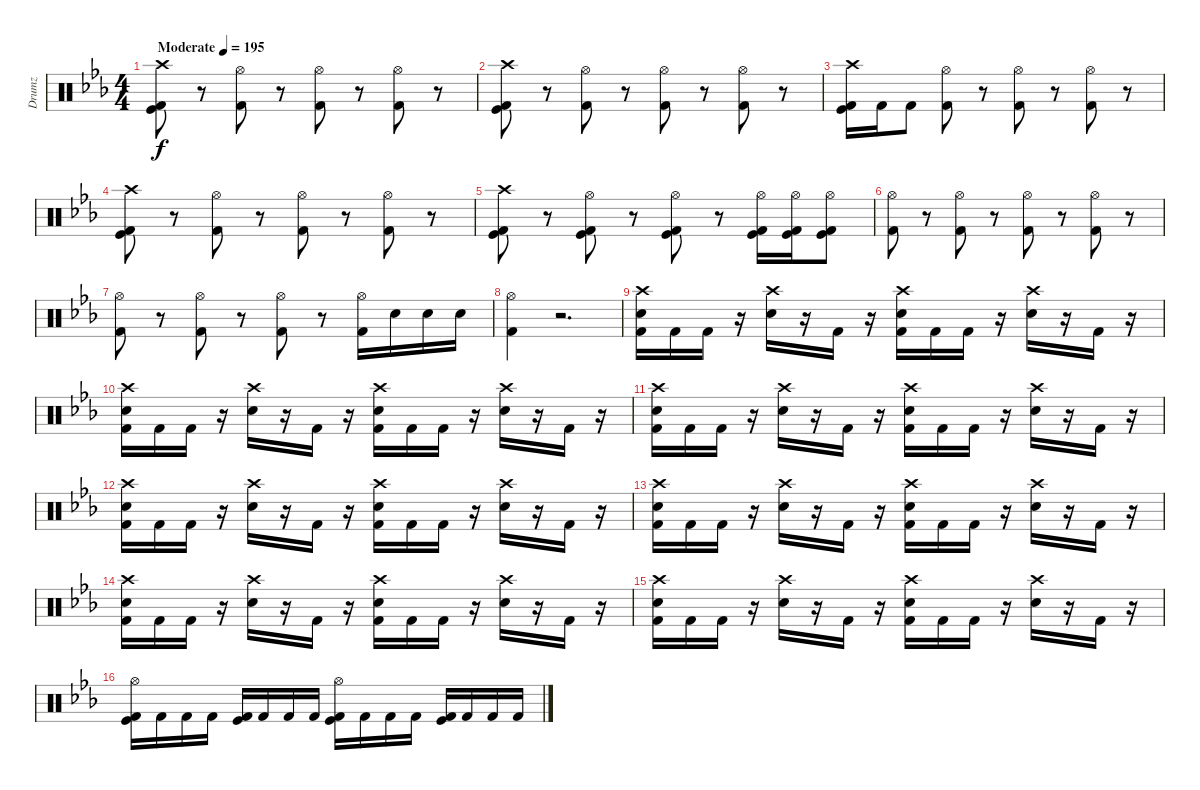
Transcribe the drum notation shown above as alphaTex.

\track ("Drumz" "Drumz") {instrument percussion}
\staff {score}
\articulation defaults
\ts (4 4)
\tempo (195 "Moderate")
\clef neutral
\ks cminor
("Crash high (hit)" "Kick (hit)" "Kick (hit) 2").8{dy f} r.8 ("Hi-Hat (open)" "Kick (hit) 2").8 r.8 ("Hi-Hat (open)" "Kick (hit) 2").8 r.8 ("Hi-Hat (open)" "Kick (hit) 2").8 r.8 |
("Crash high (hit)" "Kick (hit)" "Kick (hit) 2").8 r.8 ("Hi-Hat (open)" "Kick (hit) 2").8 r.8 ("Hi-Hat (open)" "Kick (hit) 2").8 r.8 ("Hi-Hat (open)" "Kick (hit) 2").8 r.8 |
("Crash high (hit)" "Kick (hit)" "Kick (hit) 2").16 "Kick (hit) 2".16 "Kick (hit) 2".8 ("Hi-Hat (open)" "Kick (hit) 2").8 r.8 ("Hi-Hat (open)" "Kick (hit) 2").8 r.8 ("Hi-Hat (open)" "Kick (hit) 2").8 r.8 |
("Crash high (hit)" "Kick (hit)" "Kick (hit) 2").8 r.8 ("Hi-Hat (open)" "Kick (hit) 2").8 r.8 ("Hi-Hat (open)" "Kick (hit) 2").8 r.8 ("Hi-Hat (open)" "Kick (hit) 2").8 r.8 |
("Crash high (hit)" "Kick (hit)" "Kick (hit) 2").8 r.8 ("Hi-Hat (open)" "Kick (hit)" "Kick (hit) 2").8 r.8 ("Hi-Hat (open)" "Kick (hit)" "Kick (hit) 2").8 r.8 ("Hi-Hat (open)" "Kick (hit)" "Kick (hit) 2").16 ("Hi-Hat (open)" "Kick (hit)" "Kick (hit) 2").16 ("Hi-Hat (open)" "Kick (hit)" "Kick (hit) 2").8 |
("Hi-Hat (open)" "Kick (hit) 2").8 r.8 ("Hi-Hat (open)" "Kick (hit) 2").8 r.8 ("Hi-Hat (open)" "Kick (hit) 2").8 r.8 ("Hi-Hat (open)" "Kick (hit) 2").8 r.8 |
("Hi-Hat (open)" "Kick (hit) 2").8 r.8 ("Hi-Hat (open)" "Kick (hit) 2").8 r.8 ("Hi-Hat (open)" "Kick (hit) 2").8 r.8 ("Hi-Hat (open)" "Kick (hit) 2").16 "Snare (hit) 2".16 "Snare (hit) 2".16 "Snare (hit) 2".16 |
("Hi-Hat (open)" "Kick (hit) 2").4 r.2{d} |
("Crash high (hit)" "Snare (hit) 2" "Kick (hit) 2").16 "Kick (hit) 2".16 "Kick (hit) 2".16 r.16 ("Crash high (hit)" "Snare (hit) 2").16 r.16 "Kick (hit) 2".16 r.16 ("Crash high (hit)" "Snare (hit) 2" "Kick (hit) 2").16 "Kick (hit) 2".16 "Kick (hit) 2".16 r.16 ("Crash high (hit)" "Snare (hit) 2").16 r.16 "Kick (hit) 2".16 r.16 |
("Crash high (hit)" "Snare (hit) 2" "Kick (hit) 2").16 "Kick (hit) 2".16 "Kick (hit) 2".16 r.16 ("Crash high (hit)" "Snare (hit) 2").16 r.16 "Kick (hit) 2".16 r.16 ("Crash high (hit)" "Snare (hit) 2" "Kick (hit) 2").16 "Kick (hit) 2".16 "Kick (hit) 2".16 r.16 ("Crash high (hit)" "Snare (hit) 2").16 r.16 "Kick (hit) 2".16 r.16 |
("Crash high (hit)" "Snare (hit) 2" "Kick (hit) 2").16 "Kick (hit) 2".16 "Kick (hit) 2".16 r.16 ("Crash high (hit)" "Snare (hit) 2").16 r.16 "Kick (hit) 2".16 r.16 ("Crash high (hit)" "Snare (hit) 2" "Kick (hit) 2").16 "Kick (hit) 2".16 "Kick (hit) 2".16 r.16 ("Crash high (hit)" "Snare (hit) 2").16 r.16 "Kick (hit) 2".16 r.16 |
("Crash high (hit)" "Snare (hit) 2" "Kick (hit) 2").16 "Kick (hit) 2".16 "Kick (hit) 2".16 r.16 ("Crash high (hit)" "Snare (hit) 2").16 r.16 "Kick (hit) 2".16 r.16 ("Crash high (hit)" "Snare (hit) 2" "Kick (hit) 2").16 "Kick (hit) 2".16 "Kick (hit) 2".16 r.16 ("Crash high (hit)" "Snare (hit) 2").16 r.16 "Kick (hit) 2".16 r.16 |
("Crash high (hit)" "Snare (hit) 2" "Kick (hit) 2").16 "Kick (hit) 2".16 "Kick (hit) 2".16 r.16 ("Crash high (hit)" "Snare (hit) 2").16 r.16 "Kick (hit) 2".16 r.16 ("Crash high (hit)" "Snare (hit) 2" "Kick (hit) 2").16 "Kick (hit) 2".16 "Kick (hit) 2".16 r.16 ("Crash high (hit)" "Snare (hit) 2").16 r.16 "Kick (hit) 2".16 r.16 |
("Crash high (hit)" "Snare (hit) 2" "Kick (hit) 2").16 "Kick (hit) 2".16 "Kick (hit) 2".16 r.16 ("Crash high (hit)" "Snare (hit) 2").16 r.16 "Kick (hit) 2".16 r.16 ("Crash high (hit)" "Snare (hit) 2" "Kick (hit) 2").16 "Kick (hit) 2".16 "Kick (hit) 2".16 r.16 ("Crash high (hit)" "Snare (hit) 2").16 r.16 "Kick (hit) 2".16 r.16 |
("Crash high (hit)" "Snare (hit) 2" "Kick (hit) 2").16 "Kick (hit) 2".16 "Kick (hit) 2".16 r.16 ("Crash high (hit)" "Snare (hit) 2").16 r.16 "Kick (hit) 2".16 r.16 ("Crash high (hit)" "Snare (hit) 2" "Kick (hit) 2").16 "Kick (hit) 2".16 "Kick (hit) 2".16 r.16 ("Crash high (hit)" "Snare (hit) 2").16 r.16 "Kick (hit) 2".16 r.16 |
("Hi-Hat (open)" "Kick (hit)" "Kick (hit) 2").16 "Kick (hit) 2".16 "Kick (hit) 2".16 "Kick (hit) 2".16 ("Kick (hit)" "Kick (hit) 2").16 "Kick (hit) 2".16 "Kick (hit) 2".16 "Kick (hit) 2".16 ("Hi-Hat (open)" "Kick (hit)" "Kick (hit) 2").16 "Kick (hit) 2".16 "Kick (hit) 2".16 "Kick (hit) 2".16 ("Kick (hit)" "Kick (hit) 2").16 "Kick (hit) 2".16 "Kick (hit) 2".16 "Kick (hit) 2".16
